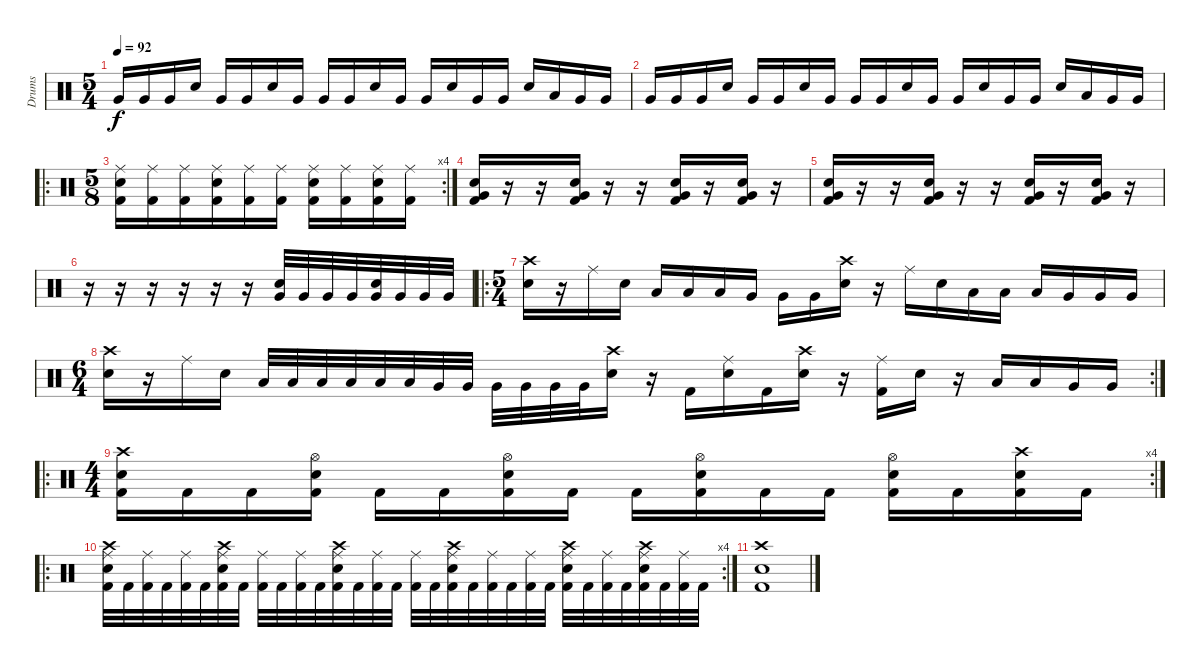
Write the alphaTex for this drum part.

\track ("Drums               " "Drums     ") {instrument percussion}
\staff {score}
\articulation defaults
\ts (5 4)
\tempo 92
\clef neutral
\ks c "Very Low Tom (hit)".16{dy f} "Very Low Tom (hit)".16 "Very Low Tom (hit)".16 "Electric Snare (hit)".16 "Very Low Tom (hit)".16 "Very Low Tom (hit)".16 "Electric Snare (hit)".16 "Very Low Tom (hit)".16 "Very Low Tom (hit)".16 "Very Low Tom (hit)".16 "Electric Snare (hit)".16 "Very Low Tom (hit)".16 "Very Low Tom (hit)".16 "Electric Snare (hit)".16 "Very Low Tom (hit)".16 "Very Low Tom (hit)".16 "Electric Snare (hit)".16 "Low Tom (hit)".16 "Very Low Tom (hit)".16 "Very Low Tom (hit)".16
|
"Very Low Tom (hit)".16 "Very Low Tom (hit)".16 "Very Low Tom (hit)".16 "Electric Snare (hit)".16 "Very Low Tom (hit)".16 "Very Low Tom (hit)".16 "Electric Snare (hit)".16 "Very Low Tom (hit)".16 "Very Low Tom (hit)".16 "Very Low Tom (hit)".16 "Electric Snare (hit)".16 "Very Low Tom (hit)".16 "Very Low Tom (hit)".16 "Electric Snare (hit)".16 "Very Low Tom (hit)".16 "Very Low Tom (hit)".16 "Electric Snare (hit)".16 "Low Tom (hit)".16 "Very Low Tom (hit)".16 "Very Low Tom (hit)".16 |
\ro
\rc 4
\ts (5 8)
("Ride (middle)" "Electric Snare (hit)" "Kick (hit) 2").16 ("Ride (middle)" "Kick (hit) 2").16 ("Ride (middle)" "Kick (hit) 2").16 ("Ride (middle)" "Electric Snare (hit)" "Kick (hit) 2").16 ("Ride (middle)" "Kick (hit) 2").16 ("Ride (middle)" "Kick (hit) 2").16 ("Ride (middle)" "Electric Snare (hit)" "Kick (hit) 2").16 ("Ride (middle)" "Kick (hit) 2").16 ("Ride (middle)" "Electric Snare (hit)" "Kick (hit) 2").16 ("Ride (middle)" "Kick (hit) 2").16 |
("Very Low Tom (hit)" "Electric Snare (hit)" "Kick (hit) 2").16 r.16 r.16 ("Very Low Tom (hit)" "Electric Snare (hit)" "Kick (hit) 2").16 r.16 r.16 ("Very Low Tom (hit)" "Electric Snare (hit)" "Kick (hit) 2").16 r.16 ("Very Low Tom (hit)" "Electric Snare (hit)" "Kick (hit) 2").16 r.16 |
("Very Low Tom (hit)" "Electric Snare (hit)" "Kick (hit) 2").16 r.16 r.16 ("Very Low Tom (hit)" "Electric Snare (hit)" "Kick (hit) 2").16 r.16 r.16 ("Very Low Tom (hit)" "Electric Snare (hit)" "Kick (hit) 2").16 r.16 ("Very Low Tom (hit)" "Electric Snare (hit)" "Kick (hit) 2").16 r.16 |
r.16 r.16 r.16 r.16 r.16 r.16 ("Very Low Tom (hit)" "Electric Snare (hit)").32 "Very Low Tom (hit)".32 "Very Low Tom (hit)".32 "Very Low Tom (hit)".32 ("Very Low Tom (hit)" "Electric Snare (hit)").32 "Very Low Tom (hit)".32 "Very Low Tom (hit)".32 "Very Low Tom (hit)".32 |
\ro
\ts (5 4)
("Crash high (hit)" "Electric Snare (hit)").16 r.16 "Ride (middle)".16 "Electric Snare (hit)".16 "Low Tom (hit)".16 "Low Tom (hit)".16 "Low Tom (hit)".16 "Very Low Tom (hit)".16 "Very Low Tom (hit)".16 "Very Low Tom (hit)".16 ("Crash high (hit)" "Electric Snare (hit)").16 r.16 "Ride (middle)".16 "Electric Snare (hit)".16 "Low Tom (hit)".16 "Low Tom (hit)".16 "Low Tom (hit)".16 "Very Low Tom (hit)".16 "Very Low Tom (hit)".16 "Very Low Tom (hit)".16 |
\rc 2
\ts (6 4)
("Crash high (hit)" "Electric Snare (hit)").16 r.16 "Ride (middle)".16 "Electric Snare (hit)".16 "Low Tom (hit)".32 "Low Tom (hit)".32 "Low Tom (hit)".32 "Low Tom (hit)".32 "Low Tom (hit)".32 "Low Tom (hit)".32 "Very Low Tom (hit)".32 "Very Low Tom (hit)".32 "Very Low Tom (hit)".32 "Very Low Tom (hit)".32 "Very Low Tom (hit)".32 "Very Low Tom (hit)".32 ("Crash high (hit)" "Electric Snare (hit)").16 r.16 "Kick (hit) 2".16 ("Ride (middle)" "Electric Snare (hit)").16 "Kick (hit) 2".16 ("Crash high (hit)" "Electric Snare (hit)").16 r.16 ("Ride (middle)" "Kick (hit) 2").16 "Electric Snare (hit)".16 r.16 "Low Tom (hit)".16 "Low Tom (hit)".16 "Very Low Tom (hit)".16 "Very Low Tom (hit)".16 |
\ro
\rc 4
\ts (4 4)
("Crash high (hit)" "Electric Snare (hit)" "Kick (hit) 2").16 "Kick (hit) 2".16 "Kick (hit) 2".16 ("Hi-Hat (open)" "Electric Snare (hit)" "Kick (hit) 2").16 "Kick (hit) 2".16 "Kick (hit) 2".16 ("Hi-Hat (open)" "Electric Snare (hit)" "Kick (hit) 2").16 "Kick (hit) 2".16 "Kick (hit) 2".16 ("Hi-Hat (open)" "Electric Snare (hit)" "Kick (hit) 2").16 "Kick (hit) 2".16 "Kick (hit) 2".16 ("Hi-Hat (open)" "Electric Snare (hit)" "Kick (hit) 2").16 "Kick (hit) 2".16 ("Crash high (hit)" "Electric Snare (hit)" "Kick (hit) 2").16 "Kick (hit) 2".16 |
\ro
\rc 4
("Crash high (hit)" "Electric Snare (hit)" "Kick (hit) 2" "Ride (middle)").32 "Kick (hit) 2".32 ("Kick (hit) 2" "Ride (middle)").32 "Kick (hit) 2".32 ("Kick (hit) 2" "Ride (middle)").32 "Kick (hit) 2".32 ("Crash high (hit)" "Electric Snare (hit)" "Kick (hit) 2" "Ride (middle)").32 "Kick (hit) 2".32 ("Kick (hit) 2" "Ride (middle)").32 "Kick (hit) 2".32 ("Kick (hit) 2" "Ride (middle)").32 "Kick (hit) 2".32 ("Crash high (hit)" "Electric Snare (hit)" "Kick (hit) 2" "Ride (middle)").32 "Kick (hit) 2".32 ("Kick (hit) 2" "Ride (middle)").32 "Kick (hit) 2".32 ("Kick (hit) 2" "Ride (middle)").32 "Kick (hit) 2".32 ("Crash high (hit)" "Electric Snare (hit)" "Kick (hit) 2" "Ride (middle)").32 "Kick (hit) 2".32 ("Kick (hit) 2" "Ride (middle)").32 "Kick (hit) 2".32 ("Kick (hit) 2" "Ride (middle)").32 "Kick (hit) 2".32 ("Crash high (hit)" "Electric Snare (hit)" "Kick (hit) 2" "Ride (middle)").32 "Kick (hit) 2".32 ("Kick (hit) 2" "Ride (middle)").32 "Kick (hit) 2".32 ("Crash high (hit)" "Electric Snare (hit)" "Kick (hit) 2" "Ride (middle)").32 "Kick (hit) 2".32 ("Kick (hit) 2" "Ride (middle)").32 "Kick (hit) 2".32 |
("Crash high (hit)" "Kick (hit) 2" "Electric Snare (hit)").1
